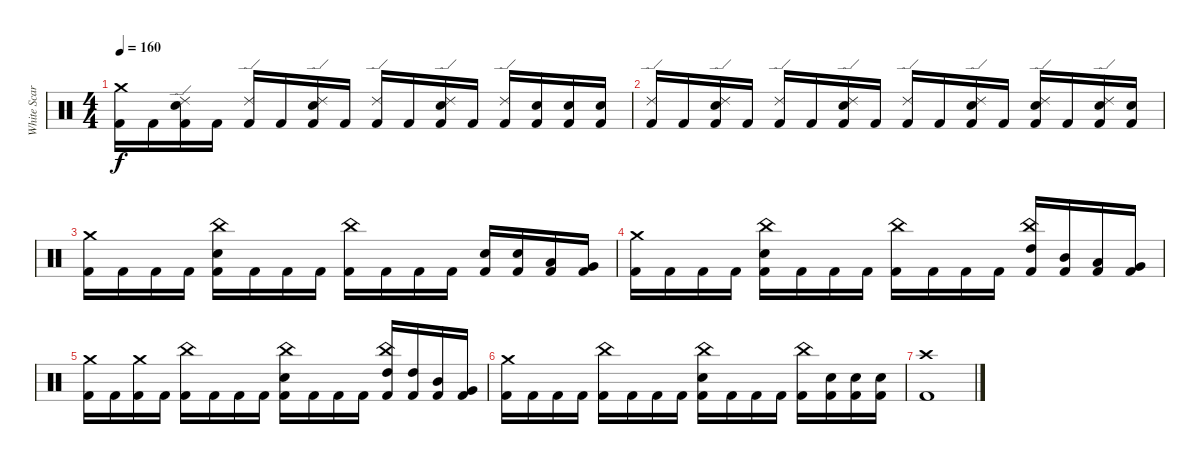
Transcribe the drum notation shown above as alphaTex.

\track ("White Scar" "White Scar") {instrument percussion}
\staff {score}
\articulation defaults
\ts (4 4)
\tempo 160
\clef neutral
\ks c
("Crash medium (hit)" "Kick (hit) 2").16{dy f} "Kick (hit) 2".16 ("Ride (edge) 2" "Snare (hit) 2" "Kick (hit) 2").16 "Kick (hit) 2".16 ("Ride (edge) 2" "Kick (hit) 2").16 "Kick (hit) 2".16 ("Ride (edge) 2" "Snare (hit) 2" "Kick (hit) 2").16 "Kick (hit) 2".16 ("Ride (edge) 2" "Kick (hit) 2").16 "Kick (hit) 2".16 ("Ride (edge) 2" "Snare (hit) 2" "Kick (hit) 2").16 "Kick (hit) 2".16 ("Ride (edge) 2" "Kick (hit) 2").16 ("Snare (hit) 2" "Kick (hit) 2").16 ("Snare (hit) 2" "Kick (hit) 2").16 ("Snare (hit) 2" "Kick (hit) 2").16 |
("Ride (edge) 2" "Kick (hit) 2").16 "Kick (hit) 2".16 ("Ride (edge) 2" "Snare (hit) 2" "Kick (hit) 2").16 "Kick (hit) 2".16 ("Ride (edge) 2" "Kick (hit) 2").16 "Kick (hit) 2".16 ("Ride (edge) 2" "Snare (hit) 2" "Kick (hit) 2").16 "Kick (hit) 2".16 ("Ride (edge) 2" "Kick (hit) 2").16 "Kick (hit) 2".16 ("Ride (edge) 2" "Snare (hit) 2" "Kick (hit) 2").16 "Kick (hit) 2".16 ("Ride (edge) 2" "Snare (hit) 2" "Kick (hit) 2").16 "Kick (hit) 2".16 ("Ride (edge) 2" "Snare (hit) 2" "Kick (hit) 2").16 ("Snare (hit) 2" "Kick (hit) 2").16 |
("Crash medium (hit)" "Kick (hit) 2").16 "Kick (hit) 2".16 "Kick (hit) 2".16 "Kick (hit) 2".16 ("China (hit)" "Snare (hit) 2" "Kick (hit) 2").16 "Kick (hit) 2".16 "Kick (hit) 2".16 "Kick (hit) 2".16 ("China (hit)" "Kick (hit) 2").16 "Kick (hit) 2".16 "Kick (hit) 2".16 "Kick (hit) 2".16 ("Snare (hit) 2" "Kick (hit) 2").16 ("Snare (hit) 2" "Kick (hit) 2").16 ("Low Tom (hit)" "Kick (hit) 2").16 ("Very Low Tom (hit)" "Kick (hit) 2").16 |
("Crash medium (hit)" "Kick (hit) 2").16 "Kick (hit) 2".16 "Kick (hit) 2".16 "Kick (hit) 2".16 ("China (hit)" "Snare (hit) 2" "Kick (hit) 2").16 "Kick (hit) 2".16 "Kick (hit) 2".16 "Kick (hit) 2".16 ("China (hit)" "Kick (hit) 2").16 "Kick (hit) 2".16 "Kick (hit) 2".16 "Kick (hit) 2".16 ("China (hit)" "High Tom (hit)" "Kick (hit) 2").16 ("Mid Tom (hit)" "Kick (hit) 2").16 ("Low Tom (hit)" "Kick (hit) 2").16 ("Very Low Tom (hit)" "Kick (hit) 2").16 |
("Crash medium (hit)" "Kick (hit) 2").16 "Kick (hit) 2".16 ("Crash medium (hit)" "Kick (hit) 2").16 "Kick (hit) 2".16 ("China (hit)" "Kick (hit) 2").16 "Kick (hit) 2".16 "Kick (hit) 2".16 "Kick (hit) 2".16 ("China (hit)" "Snare (hit) 2" "Kick (hit) 2").16 "Kick (hit) 2".16 "Kick (hit) 2".16 "Kick (hit) 2".16 ("China (hit)" "High Tom (hit)" "Kick (hit) 2").16 ("High Tom (hit)" "Kick (hit) 2").16 ("Mid Tom (hit)" "Kick (hit) 2").16 ("Very Low Tom (hit)" "Kick (hit) 2").16 |
("Crash medium (hit)" "Kick (hit) 2").16 "Kick (hit) 2".16 "Kick (hit) 2".16 "Kick (hit) 2".16 ("China (hit)" "Kick (hit) 2").16 "Kick (hit) 2".16 "Kick (hit) 2".16 "Kick (hit) 2".16 ("China (hit)" "Snare (hit) 2" "Kick (hit) 2").16 "Kick (hit) 2".16 "Kick (hit) 2".16 "Kick (hit) 2".16 ("China (hit)" "Kick (hit) 2").16 ("Snare (hit) 2" "Kick (hit) 2").16 ("Snare (hit) 2" "Kick (hit) 2").16 ("Snare (hit) 2" "Kick (hit) 2").16 |
("Crash high (hit)" "Kick (hit) 2").1
